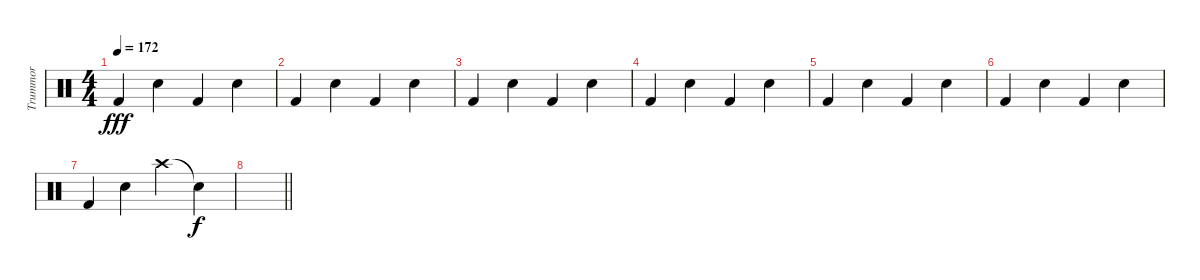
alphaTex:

\track ("Trummor" "Trummor") {instrument percussion}
\staff {score}
\articulation defaults
\ts (4 4)
\tempo 172
\clef neutral
\ks c "Kick (hit) 2".4{dy fff} "Snare (hit) 2".4 "Kick (hit) 2".4 "Snare (hit) 2".4
|
"Kick (hit) 2".4 "Snare (hit) 2".4 "Kick (hit) 2".4 "Snare (hit) 2".4 |
"Kick (hit) 2".4 "Snare (hit) 2".4 "Kick (hit) 2".4 "Snare (hit) 2".4 |
"Kick (hit) 2".4 "Snare (hit) 2".4 "Kick (hit) 2".4 "Snare (hit) 2".4 |
"Kick (hit) 2".4 "Snare (hit) 2".4 "Kick (hit) 2".4 "Snare (hit) 2".4 |
"Kick (hit) 2".4 "Snare (hit) 2".4 "Kick (hit) 2".4 "Snare (hit) 2".4 |
"Kick (hit) 2".4 "Snare (hit) 2".4 "Crash high (hit)".4 "Snare (hit) 2"{t}.4{dy f} |
\barLineRight lightlight
